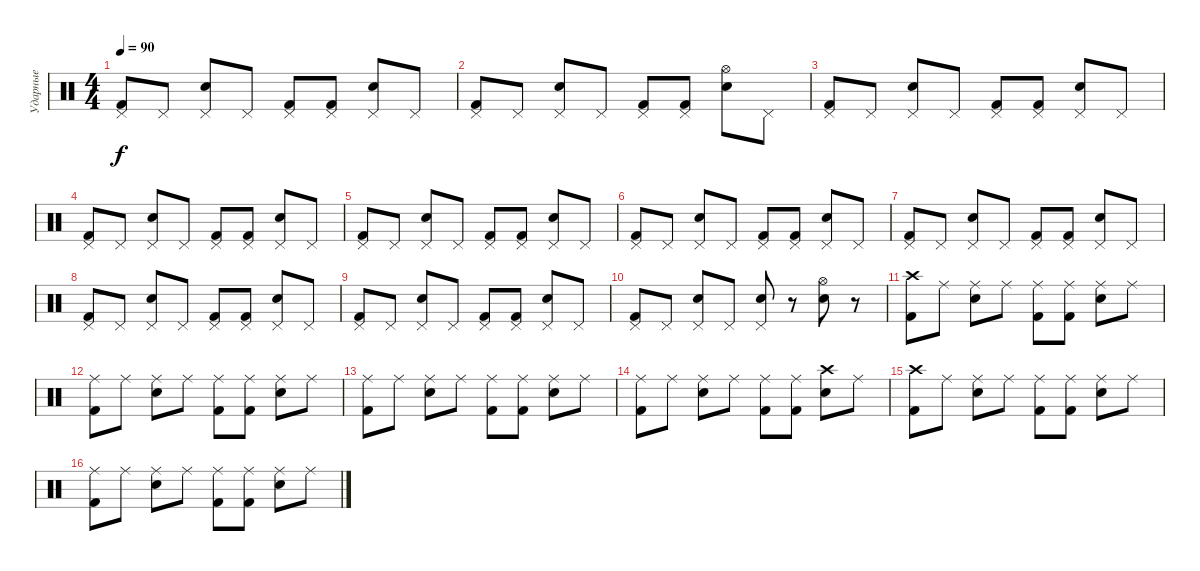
\track ("Ударные" "Ударные") {instrument percussion}
\staff {score}
\articulation defaults
\ts (4 4)
\tempo 90
\clef neutral
\ks c
("Pedal Hi-Hat (hit)" "Kick (hit) 2").8{dy f} "Pedal Hi-Hat (hit)".8 ("Pedal Hi-Hat (hit)" "Snare (hit) 2").8 "Pedal Hi-Hat (hit)".8 ("Pedal Hi-Hat (hit)" "Kick (hit) 2").8 ("Pedal Hi-Hat (hit)" "Kick (hit) 2").8 ("Pedal Hi-Hat (hit)" "Snare (hit) 2").8 "Pedal Hi-Hat (hit)".8 |
("Pedal Hi-Hat (hit)" "Kick (hit) 2").8 "Pedal Hi-Hat (hit)".8 ("Pedal Hi-Hat (hit)" "Snare (hit) 2").8 "Pedal Hi-Hat (hit)".8 ("Pedal Hi-Hat (hit)" "Kick (hit) 2").8 ("Pedal Hi-Hat (hit)" "Kick (hit) 2").8 ("Hi-Hat (open)" "Snare (hit) 2").8 "Pedal Hi-Hat (hit)".8 |
("Pedal Hi-Hat (hit)" "Kick (hit) 2").8 "Pedal Hi-Hat (hit)".8 ("Pedal Hi-Hat (hit)" "Snare (hit) 2").8 "Pedal Hi-Hat (hit)".8 ("Pedal Hi-Hat (hit)" "Kick (hit) 2").8 ("Pedal Hi-Hat (hit)" "Kick (hit) 2").8 ("Pedal Hi-Hat (hit)" "Snare (hit) 2").8 "Pedal Hi-Hat (hit)".8 |
("Pedal Hi-Hat (hit)" "Kick (hit) 2").8 "Pedal Hi-Hat (hit)".8 ("Pedal Hi-Hat (hit)" "Snare (hit) 2").8 "Pedal Hi-Hat (hit)".8 ("Pedal Hi-Hat (hit)" "Kick (hit) 2").8 ("Pedal Hi-Hat (hit)" "Kick (hit) 2").8 ("Pedal Hi-Hat (hit)" "Snare (hit) 2").8 "Pedal Hi-Hat (hit)".8 |
("Pedal Hi-Hat (hit)" "Kick (hit) 2").8 "Pedal Hi-Hat (hit)".8 ("Pedal Hi-Hat (hit)" "Snare (hit) 2").8 "Pedal Hi-Hat (hit)".8 ("Pedal Hi-Hat (hit)" "Kick (hit) 2").8 ("Pedal Hi-Hat (hit)" "Kick (hit) 2").8 ("Pedal Hi-Hat (hit)" "Snare (hit) 2").8 "Pedal Hi-Hat (hit)".8 |
("Pedal Hi-Hat (hit)" "Kick (hit) 2").8 "Pedal Hi-Hat (hit)".8 ("Pedal Hi-Hat (hit)" "Snare (hit) 2").8 "Pedal Hi-Hat (hit)".8 ("Pedal Hi-Hat (hit)" "Kick (hit) 2").8 ("Pedal Hi-Hat (hit)" "Kick (hit) 2").8 ("Pedal Hi-Hat (hit)" "Snare (hit) 2").8 "Pedal Hi-Hat (hit)".8 |
("Pedal Hi-Hat (hit)" "Kick (hit) 2").8 "Pedal Hi-Hat (hit)".8 ("Pedal Hi-Hat (hit)" "Snare (hit) 2").8 "Pedal Hi-Hat (hit)".8 ("Pedal Hi-Hat (hit)" "Kick (hit) 2").8 ("Pedal Hi-Hat (hit)" "Kick (hit) 2").8 ("Pedal Hi-Hat (hit)" "Snare (hit) 2").8 "Pedal Hi-Hat (hit)".8 |
("Pedal Hi-Hat (hit)" "Kick (hit) 2").8 "Pedal Hi-Hat (hit)".8 ("Pedal Hi-Hat (hit)" "Snare (hit) 2").8 "Pedal Hi-Hat (hit)".8 ("Pedal Hi-Hat (hit)" "Kick (hit) 2").8 ("Pedal Hi-Hat (hit)" "Kick (hit) 2").8 ("Pedal Hi-Hat (hit)" "Snare (hit) 2").8 "Pedal Hi-Hat (hit)".8 |
("Pedal Hi-Hat (hit)" "Kick (hit) 2").8 "Pedal Hi-Hat (hit)".8 ("Pedal Hi-Hat (hit)" "Snare (hit) 2").8 "Pedal Hi-Hat (hit)".8 ("Pedal Hi-Hat (hit)" "Kick (hit) 2").8 ("Pedal Hi-Hat (hit)" "Kick (hit) 2").8 ("Pedal Hi-Hat (hit)" "Snare (hit) 2").8 "Pedal Hi-Hat (hit)".8 |
("Pedal Hi-Hat (hit)" "Kick (hit) 2").8 "Pedal Hi-Hat (hit)".8 ("Pedal Hi-Hat (hit)" "Snare (hit) 2").8 "Pedal Hi-Hat (hit)".8 ("Pedal Hi-Hat (hit)" "Snare (hit) 2").8 r.8 ("Hi-Hat (open)" "Snare (hit) 2").8 r.8 |
("Crash high (hit)" "Kick (hit) 2").8 "Ride (middle)".8 ("Ride (middle)" "Snare (hit) 2").8 "Ride (middle)".8 ("Ride (middle)" "Kick (hit) 2").8 ("Ride (middle)" "Kick (hit) 2").8 ("Ride (middle)" "Snare (hit) 2").8 "Ride (middle)".8 |
("Ride (middle)" "Kick (hit) 2").8 "Ride (middle)".8 ("Ride (middle)" "Snare (hit) 2").8 "Ride (middle)".8 ("Ride (middle)" "Kick (hit) 2").8 ("Ride (middle)" "Kick (hit) 2").8 ("Ride (middle)" "Snare (hit) 2").8 "Ride (middle)".8 |
("Ride (middle)" "Kick (hit) 2").8 "Ride (middle)".8 ("Ride (middle)" "Snare (hit) 2").8 "Ride (middle)".8 ("Ride (middle)" "Kick (hit) 2").8 ("Ride (middle)" "Kick (hit) 2").8 ("Ride (middle)" "Snare (hit) 2").8 "Ride (middle)".8 |
("Ride (middle)" "Kick (hit) 2").8 "Ride (middle)".8 ("Ride (middle)" "Snare (hit) 2").8 "Ride (middle)".8 ("Ride (middle)" "Kick (hit) 2").8 ("Ride (middle)" "Kick (hit) 2").8 ("Crash high (hit)" "Snare (hit) 2").8 "Ride (middle)".8 |
("Crash high (hit)" "Kick (hit) 2").8 "Ride (middle)".8 ("Ride (middle)" "Snare (hit) 2").8 "Ride (middle)".8 ("Ride (middle)" "Kick (hit) 2").8 ("Ride (middle)" "Kick (hit) 2").8 ("Ride (middle)" "Snare (hit) 2").8 "Ride (middle)".8 |
("Ride (middle)" "Kick (hit) 2").8 "Ride (middle)".8 ("Ride (middle)" "Snare (hit) 2").8 "Ride (middle)".8 ("Ride (middle)" "Kick (hit) 2").8 ("Ride (middle)" "Kick (hit) 2").8 ("Ride (middle)" "Snare (hit) 2").8 "Ride (middle)".8
